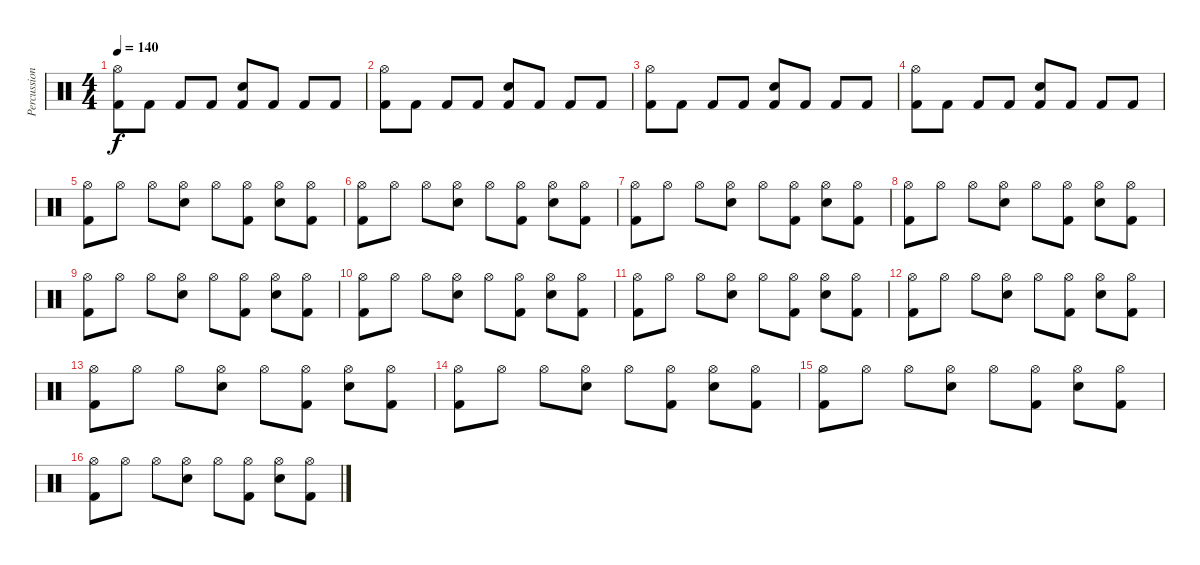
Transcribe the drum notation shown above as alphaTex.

\track ("Percussion" "Percussion") {instrument percussion}
\staff {score}
\articulation defaults
\ts (4 4)
\tempo 140
\clef neutral
\ks c
("Hi-Hat (open)" "Kick (hit) 2").8{dy f} "Kick (hit) 2".8 "Kick (hit) 2".8 "Kick (hit) 2".8 ("Electric Snare (hit)" "Kick (hit) 2").8 "Kick (hit) 2".8 "Kick (hit) 2".8 "Kick (hit) 2".8 |
("Hi-Hat (open)" "Kick (hit) 2").8 "Kick (hit) 2".8 "Kick (hit) 2".8 "Kick (hit) 2".8 ("Electric Snare (hit)" "Kick (hit) 2").8 "Kick (hit) 2".8 "Kick (hit) 2".8 "Kick (hit) 2".8 |
("Hi-Hat (open)" "Kick (hit) 2").8 "Kick (hit) 2".8 "Kick (hit) 2".8 "Kick (hit) 2".8 ("Electric Snare (hit)" "Kick (hit) 2").8 "Kick (hit) 2".8 "Kick (hit) 2".8 "Kick (hit) 2".8 |
("Hi-Hat (open)" "Kick (hit) 2").8 "Kick (hit) 2".8 "Kick (hit) 2".8 "Kick (hit) 2".8 ("Electric Snare (hit)" "Kick (hit) 2").8 "Kick (hit) 2".8 "Kick (hit) 2".8 "Kick (hit) 2".8 |
("Hi-Hat (open)" "Kick (hit) 2").8 "Hi-Hat (open)".8 "Hi-Hat (open)".8 ("Hi-Hat (open)" "Electric Snare (hit)").8 "Hi-Hat (open)".8 ("Hi-Hat (open)" "Kick (hit) 2").8 ("Hi-Hat (open)" "Electric Snare (hit)").8 ("Hi-Hat (open)" "Kick (hit) 2").8 |
("Hi-Hat (open)" "Kick (hit) 2").8 "Hi-Hat (open)".8 "Hi-Hat (open)".8 ("Hi-Hat (open)" "Electric Snare (hit)").8 "Hi-Hat (open)".8 ("Hi-Hat (open)" "Kick (hit) 2").8 ("Hi-Hat (open)" "Electric Snare (hit)").8 ("Hi-Hat (open)" "Kick (hit) 2").8 |
("Hi-Hat (open)" "Kick (hit) 2").8 "Hi-Hat (open)".8 "Hi-Hat (open)".8 ("Hi-Hat (open)" "Electric Snare (hit)").8 "Hi-Hat (open)".8 ("Hi-Hat (open)" "Kick (hit) 2").8 ("Hi-Hat (open)" "Electric Snare (hit)").8 ("Hi-Hat (open)" "Kick (hit) 2").8 |
("Hi-Hat (open)" "Kick (hit) 2").8 "Hi-Hat (open)".8 "Hi-Hat (open)".8 ("Hi-Hat (open)" "Electric Snare (hit)").8 "Hi-Hat (open)".8 ("Hi-Hat (open)" "Kick (hit) 2").8 ("Hi-Hat (open)" "Electric Snare (hit)").8 ("Hi-Hat (open)" "Kick (hit) 2").8 |
("Hi-Hat (open)" "Kick (hit) 2").8 "Hi-Hat (open)".8 "Hi-Hat (open)".8 ("Hi-Hat (open)" "Electric Snare (hit)").8 "Hi-Hat (open)".8 ("Hi-Hat (open)" "Kick (hit) 2").8 ("Hi-Hat (open)" "Electric Snare (hit)").8 ("Hi-Hat (open)" "Kick (hit) 2").8 |
("Hi-Hat (open)" "Kick (hit) 2").8 "Hi-Hat (open)".8 "Hi-Hat (open)".8 ("Hi-Hat (open)" "Electric Snare (hit)").8 "Hi-Hat (open)".8 ("Hi-Hat (open)" "Kick (hit) 2").8 ("Hi-Hat (open)" "Electric Snare (hit)").8 ("Hi-Hat (open)" "Kick (hit) 2").8 |
("Hi-Hat (open)" "Kick (hit) 2").8 "Hi-Hat (open)".8 "Hi-Hat (open)".8 ("Hi-Hat (open)" "Electric Snare (hit)").8 "Hi-Hat (open)".8 ("Hi-Hat (open)" "Kick (hit) 2").8 ("Hi-Hat (open)" "Electric Snare (hit)").8 ("Hi-Hat (open)" "Kick (hit) 2").8 |
("Hi-Hat (open)" "Kick (hit) 2").8 "Hi-Hat (open)".8 "Hi-Hat (open)".8 ("Hi-Hat (open)" "Electric Snare (hit)").8 "Hi-Hat (open)".8 ("Hi-Hat (open)" "Kick (hit) 2").8 ("Hi-Hat (open)" "Electric Snare (hit)").8 ("Hi-Hat (open)" "Kick (hit) 2").8 |
("Hi-Hat (open)" "Kick (hit) 2").8 "Hi-Hat (open)".8 "Hi-Hat (open)".8 ("Hi-Hat (open)" "Electric Snare (hit)").8 "Hi-Hat (open)".8 ("Hi-Hat (open)" "Kick (hit) 2").8 ("Hi-Hat (open)" "Electric Snare (hit)").8 ("Hi-Hat (open)" "Kick (hit) 2").8 |
("Hi-Hat (open)" "Kick (hit) 2").8 "Hi-Hat (open)".8 "Hi-Hat (open)".8 ("Hi-Hat (open)" "Electric Snare (hit)").8 "Hi-Hat (open)".8 ("Hi-Hat (open)" "Kick (hit) 2").8 ("Hi-Hat (open)" "Electric Snare (hit)").8 ("Hi-Hat (open)" "Kick (hit) 2").8 |
("Hi-Hat (open)" "Kick (hit) 2").8 "Hi-Hat (open)".8 "Hi-Hat (open)".8 ("Hi-Hat (open)" "Electric Snare (hit)").8 "Hi-Hat (open)".8 ("Hi-Hat (open)" "Kick (hit) 2").8 ("Hi-Hat (open)" "Electric Snare (hit)").8 ("Hi-Hat (open)" "Kick (hit) 2").8 |
("Hi-Hat (open)" "Kick (hit) 2").8 "Hi-Hat (open)".8 "Hi-Hat (open)".8 ("Hi-Hat (open)" "Electric Snare (hit)").8 "Hi-Hat (open)".8 ("Hi-Hat (open)" "Kick (hit) 2").8 ("Hi-Hat (open)" "Electric Snare (hit)").8 ("Hi-Hat (open)" "Kick (hit) 2").8
